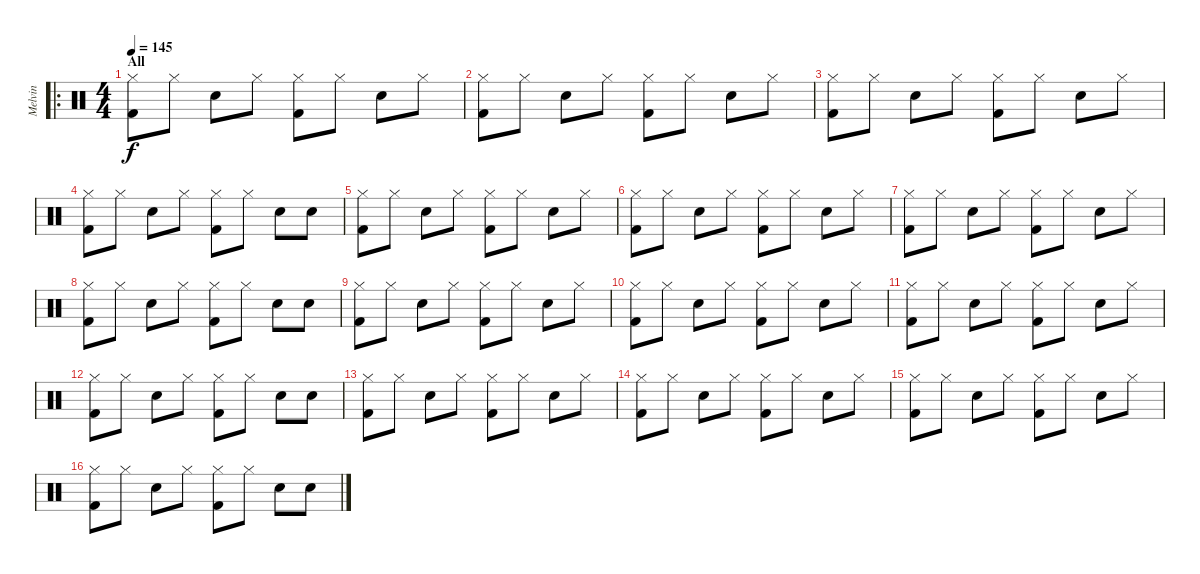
\track ("Melvin" "Melvin") {instrument percussion}
\staff {score}
\articulation defaults
\ro
\ts (4 4)
\section ("" "All")
\tempo 145
\clef neutral
\ks c
("Hi-Hat (closed)" "Kick (hit) 2").8{dy f} "Hi-Hat (closed)".8 "Snare (hit) 2".8 "Hi-Hat (closed)".8 ("Hi-Hat (closed)" "Kick (hit) 2").8 "Hi-Hat (closed)".8 "Snare (hit) 2".8 "Hi-Hat (closed)".8 |
("Hi-Hat (closed)" "Kick (hit) 2").8 "Hi-Hat (closed)".8 "Snare (hit) 2".8 "Hi-Hat (closed)".8 ("Hi-Hat (closed)" "Kick (hit) 2").8 "Hi-Hat (closed)".8 "Snare (hit) 2".8 "Hi-Hat (closed)".8 |
("Hi-Hat (closed)" "Kick (hit) 2").8 "Hi-Hat (closed)".8 "Snare (hit) 2".8 "Hi-Hat (closed)".8 ("Hi-Hat (closed)" "Kick (hit) 2").8 "Hi-Hat (closed)".8 "Snare (hit) 2".8 "Hi-Hat (closed)".8 |
("Hi-Hat (closed)" "Kick (hit) 2").8 "Hi-Hat (closed)".8 "Snare (hit) 2".8 "Hi-Hat (closed)".8 ("Hi-Hat (closed)" "Kick (hit) 2").8 "Hi-Hat (closed)".8 "Snare (hit) 2".8 "Snare (hit) 2".8 |
("Hi-Hat (closed)" "Kick (hit) 2").8 "Hi-Hat (closed)".8 "Snare (hit) 2".8 "Hi-Hat (closed)".8 ("Hi-Hat (closed)" "Kick (hit) 2").8 "Hi-Hat (closed)".8 "Snare (hit) 2".8 "Hi-Hat (closed)".8 |
("Hi-Hat (closed)" "Kick (hit) 2").8 "Hi-Hat (closed)".8 "Snare (hit) 2".8 "Hi-Hat (closed)".8 ("Hi-Hat (closed)" "Kick (hit) 2").8 "Hi-Hat (closed)".8 "Snare (hit) 2".8 "Hi-Hat (closed)".8 |
("Hi-Hat (closed)" "Kick (hit) 2").8 "Hi-Hat (closed)".8 "Snare (hit) 2".8 "Hi-Hat (closed)".8 ("Hi-Hat (closed)" "Kick (hit) 2").8 "Hi-Hat (closed)".8 "Snare (hit) 2".8 "Hi-Hat (closed)".8 |
("Hi-Hat (closed)" "Kick (hit) 2").8 "Hi-Hat (closed)".8 "Snare (hit) 2".8 "Hi-Hat (closed)".8 ("Hi-Hat (closed)" "Kick (hit) 2").8 "Hi-Hat (closed)".8 "Snare (hit) 2".8 "Snare (hit) 2".8 |
("Hi-Hat (closed)" "Kick (hit) 2").8 "Hi-Hat (closed)".8 "Snare (hit) 2".8 "Hi-Hat (closed)".8 ("Hi-Hat (closed)" "Kick (hit) 2").8 "Hi-Hat (closed)".8 "Snare (hit) 2".8 "Hi-Hat (closed)".8 |
("Hi-Hat (closed)" "Kick (hit) 2").8 "Hi-Hat (closed)".8 "Snare (hit) 2".8 "Hi-Hat (closed)".8 ("Hi-Hat (closed)" "Kick (hit) 2").8 "Hi-Hat (closed)".8 "Snare (hit) 2".8 "Hi-Hat (closed)".8 |
("Hi-Hat (closed)" "Kick (hit) 2").8 "Hi-Hat (closed)".8 "Snare (hit) 2".8 "Hi-Hat (closed)".8 ("Hi-Hat (closed)" "Kick (hit) 2").8 "Hi-Hat (closed)".8 "Snare (hit) 2".8 "Hi-Hat (closed)".8 |
("Hi-Hat (closed)" "Kick (hit) 2").8 "Hi-Hat (closed)".8 "Snare (hit) 2".8 "Hi-Hat (closed)".8 ("Hi-Hat (closed)" "Kick (hit) 2").8 "Hi-Hat (closed)".8 "Snare (hit) 2".8 "Snare (hit) 2".8 |
("Hi-Hat (closed)" "Kick (hit) 2").8 "Hi-Hat (closed)".8 "Snare (hit) 2".8 "Hi-Hat (closed)".8 ("Hi-Hat (closed)" "Kick (hit) 2").8 "Hi-Hat (closed)".8 "Snare (hit) 2".8 "Hi-Hat (closed)".8 |
("Hi-Hat (closed)" "Kick (hit) 2").8 "Hi-Hat (closed)".8 "Snare (hit) 2".8 "Hi-Hat (closed)".8 ("Hi-Hat (closed)" "Kick (hit) 2").8 "Hi-Hat (closed)".8 "Snare (hit) 2".8 "Hi-Hat (closed)".8 |
("Hi-Hat (closed)" "Kick (hit) 2").8 "Hi-Hat (closed)".8 "Snare (hit) 2".8 "Hi-Hat (closed)".8 ("Hi-Hat (closed)" "Kick (hit) 2").8 "Hi-Hat (closed)".8 "Snare (hit) 2".8 "Hi-Hat (closed)".8 |
("Hi-Hat (closed)" "Kick (hit) 2").8 "Hi-Hat (closed)".8 "Snare (hit) 2".8 "Hi-Hat (closed)".8 ("Hi-Hat (closed)" "Kick (hit) 2").8 "Hi-Hat (closed)".8 "Snare (hit) 2".8 "Snare (hit) 2".8
